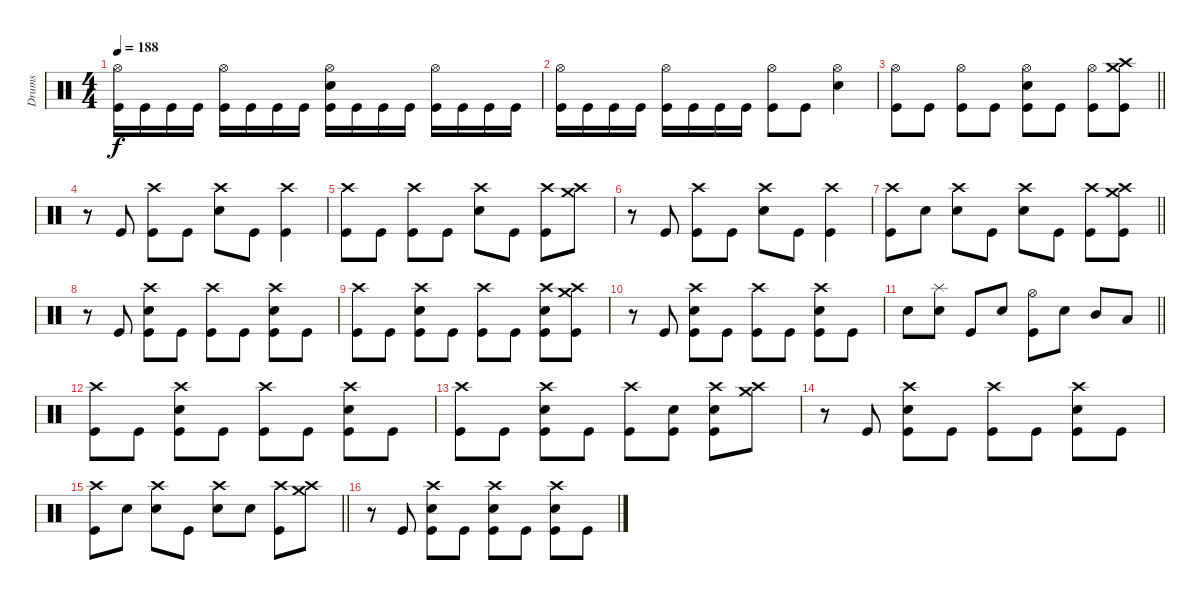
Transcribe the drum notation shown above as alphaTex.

\track ("Drums" "Drums") {instrument percussion}
\staff
\articulation defaults
\ts (4 4)
\tempo 188
\clef neutral
\ks c
("Hi-Hat (open)" "Kick (hit)").16{dy f} "Kick (hit)".16 "Kick (hit)".16 "Kick (hit)".16 ("Hi-Hat (open)" "Kick (hit)").16 "Kick (hit)".16 "Kick (hit)".16 "Kick (hit)".16 ("Hi-Hat (open)" "Electric Snare (hit)" "Kick (hit)").16 "Kick (hit)".16 "Kick (hit)".16 "Kick (hit)".16 ("Hi-Hat (open)" "Kick (hit)").16 "Kick (hit)".16 "Kick (hit)".16 "Kick (hit)".16 |
("Hi-Hat (open)" "Kick (hit)").16 "Kick (hit)".16 "Kick (hit)".16 "Kick (hit)".16 ("Hi-Hat (open)" "Kick (hit)").16 "Kick (hit)".16 "Kick (hit)".16 "Kick (hit)".16 ("Hi-Hat (open)" "Kick (hit)").8 "Kick (hit)".8 ("Hi-Hat (open)" "Electric Snare (hit)").4 |
\barLineRight lightlight
("Hi-Hat (open)" "Kick (hit)").8 "Kick (hit)".8 ("Hi-Hat (open)" "Kick (hit)").8 "Kick (hit)".8 ("Hi-Hat (open)" "Electric Snare (hit)" "Kick (hit)").8 "Kick (hit)".8 ("Hi-Hat (open)" "Kick (hit)").8 ("Crash high (hit)" "Crash medium (hit)" "Kick (hit)").8 |
\section ("" "")
r.8 "Kick (hit)".8 ("Crash high (hit)" "Kick (hit)").8 "Kick (hit)".8 ("Crash high (hit)" "Electric Snare (hit)").8 "Kick (hit)".8 ("Crash high (hit)" "Kick (hit)").4 |
("Crash high (hit)" "Kick (hit)").8 "Kick (hit)".8 ("Crash high (hit)" "Kick (hit)").8 "Kick (hit)".8 ("Crash high (hit)" "Electric Snare (hit)").8 "Kick (hit)".8 ("Crash high (hit)" "Kick (hit)").8 ("Crash high (hit)" "Crash medium (hit)").8 |
r.8 "Kick (hit)".8 ("Crash high (hit)" "Kick (hit)").8 "Kick (hit)".8 ("Crash high (hit)" "Electric Snare (hit)").8 "Kick (hit)".8 ("Crash high (hit)" "Kick (hit)").4 |
\barLineRight lightlight
("Crash high (hit)" "Kick (hit)").8 "Electric Snare (hit)".8 ("Crash high (hit)" "Electric Snare (hit)").8 "Kick (hit)".8 ("Crash high (hit)" "Electric Snare (hit)").8 "Kick (hit)".8 ("Crash high (hit)" "Kick (hit)").8 ("Crash high (hit)" "Crash medium (hit)" "Kick (hit)").8 |
r.8 "Kick (hit)".8 ("Crash high (hit)" "Electric Snare (hit)" "Kick (hit)").8 "Kick (hit)".8 ("Crash high (hit)" "Kick (hit)").8 "Kick (hit)".8 ("Crash high (hit)" "Electric Snare (hit)" "Kick (hit)").8 "Kick (hit)".8 |
("Crash high (hit)" "Kick (hit)").8 "Kick (hit)".8 ("Crash high (hit)" "Electric Snare (hit)" "Kick (hit)").8 "Kick (hit)".8 ("Crash high (hit)" "Kick (hit)").8 "Kick (hit)".8 ("Crash high (hit)" "Electric Snare (hit)" "Kick (hit)").8 ("Crash high (hit)" "Crash medium (hit)" "Kick (hit)").8 |
r.8 "Kick (hit)".8 ("Crash high (hit)" "Electric Snare (hit)" "Kick (hit)").8 "Kick (hit)".8 ("Crash high (hit)" "Kick (hit)").8 "Kick (hit)".8 ("Crash high (hit)" "Electric Snare (hit)" "Kick (hit)").8 "Kick (hit)".8 |
\barLineRight lightlight "Electric Snare (hit)".8
("Splash (hit)" "Electric Snare (hit)").8 "Kick (hit)".8 "Electric Snare (hit)".8 ("Hi-Hat (open)" "Kick (hit)").8 "Electric Snare (hit)".8 "Mid Tom (hit)".8 "Low Tom (hit)".8 |
("Crash high (hit)" "Kick (hit)").8 "Kick (hit)".8 ("Crash high (hit)" "Electric Snare (hit)" "Kick (hit)").8 "Kick (hit)".8 ("Crash high (hit)" "Kick (hit)").8 "Kick (hit)".8 ("Crash high (hit)" "Electric Snare (hit)" "Kick (hit)").8 "Kick (hit)".8 |
("Crash high (hit)" "Kick (hit)").8 "Kick (hit)".8 ("Crash high (hit)" "Electric Snare (hit)" "Kick (hit)").8 "Kick (hit)".8 ("Crash high (hit)" "Kick (hit)").8 ("Electric Snare (hit)" "Kick (hit)").8 ("Crash high (hit)" "Electric Snare (hit)" "Kick (hit)").8 ("Crash high (hit)" "Crash medium (hit)").8 |
r.8 "Kick (hit)".8 ("Crash high (hit)" "Electric Snare (hit)" "Kick (hit)").8 "Kick (hit)".8 ("Crash high (hit)" "Kick (hit)").8 "Kick (hit)".8 ("Crash high (hit)" "Electric Snare (hit)" "Kick (hit)").8 "Kick (hit)".8 |
\barLineRight lightlight
("Crash high (hit)" "Kick (hit)").8 "Electric Snare (hit)".8 ("Crash high (hit)" "Electric Snare (hit)").8 "Kick (hit)".8 ("Crash high (hit)" "Electric Snare (hit)").8 "Electric Snare (hit)".8 ("Crash high (hit)" "Kick (hit)").8 ("Crash high (hit)" "Crash medium (hit)").8 |
r.8 "Kick (hit)".8 ("Crash high (hit)" "Electric Snare (hit)" "Kick (hit)").8 "Kick (hit)".8 ("Crash high (hit)" "Electric Snare (hit)" "Kick (hit)").8 "Kick (hit)".8 ("Crash high (hit)" "Electric Snare (hit)" "Kick (hit)").8 "Kick (hit)".8
